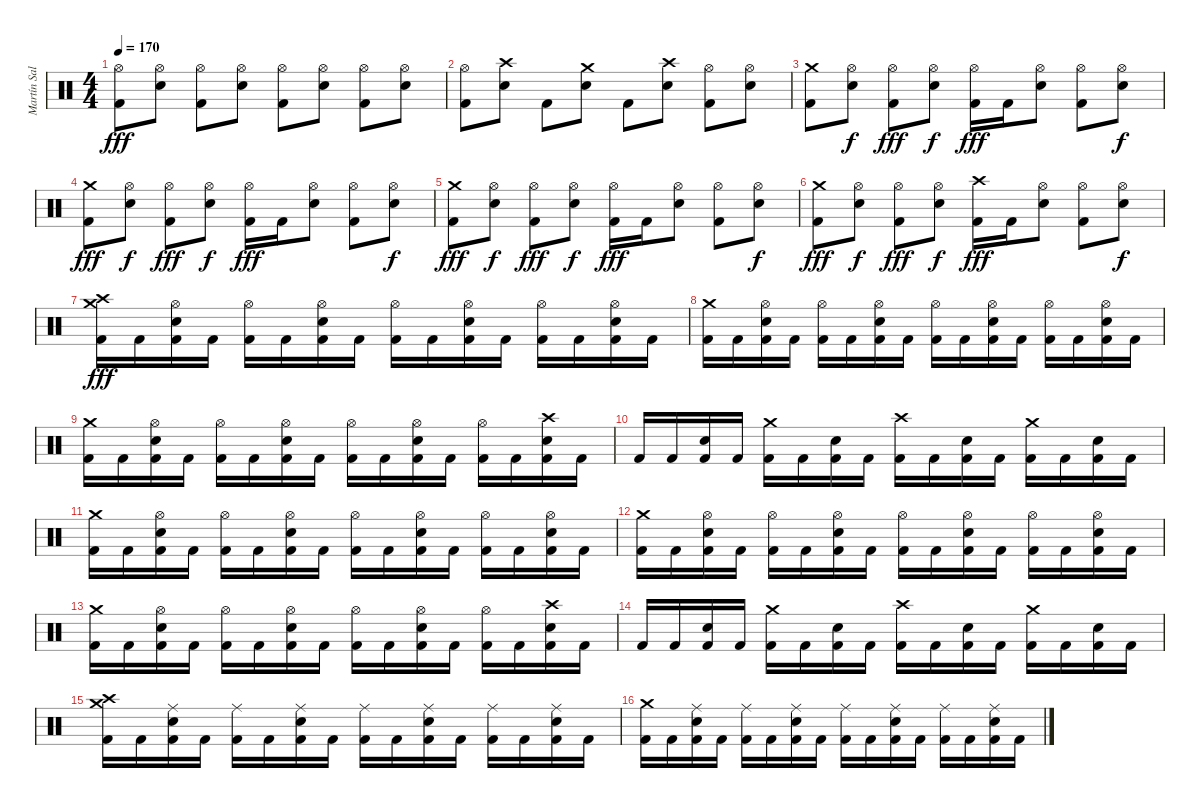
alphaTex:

\track ("Martín Salariato" "Martín Sal") {instrument percussion}
\staff {score}
\articulation defaults
\ts (4 4)
\tempo 170
\clef neutral
\ks c
("Hi-Hat (open)" "Kick (hit) 2").8{dy fff} ("Hi-Hat (open)" "Snare (hit) 2").8 ("Hi-Hat (open)" "Kick (hit) 2").8 ("Hi-Hat (open)" "Snare (hit) 2").8 ("Hi-Hat (open)" "Kick (hit) 2").8 ("Hi-Hat (open)" "Snare (hit) 2").8 ("Hi-Hat (open)" "Kick (hit) 2").8 ("Hi-Hat (open)" "Snare (hit) 2").8 |
("Hi-Hat (open)" "Kick (hit) 2").8 ("Crash high (hit)" "Snare (hit) 2").8 "Kick (hit) 2".8 ("Crash medium (hit)" "Snare (hit) 2").8 "Kick (hit) 2".8 ("Crash high (hit)" "Snare (hit) 2").8 ("Hi-Hat (open)" "Kick (hit) 2").8 ("Hi-Hat (open)" "Snare (hit) 2").8 |
("Crash medium (hit)" "Kick (hit) 2").8 ("Hi-Hat (open)" "Snare (hit) 2").8{dy f} ("Hi-Hat (open)" "Kick (hit) 2").8{dy fff} ("Hi-Hat (open)" "Snare (hit) 2").8{dy f} ("Hi-Hat (open)" "Kick (hit) 2").16{dy fff} "Kick (hit) 2".16 ("Hi-Hat (open)" "Snare (hit) 2").8 ("Hi-Hat (open)" "Kick (hit) 2").8 ("Hi-Hat (open)" "Snare (hit) 2").8{dy f} |
("Crash medium (hit)" "Kick (hit) 2").8{dy fff} ("Hi-Hat (open)" "Snare (hit) 2").8{dy f} ("Hi-Hat (open)" "Kick (hit) 2").8{dy fff} ("Hi-Hat (open)" "Snare (hit) 2").8{dy f} ("Hi-Hat (open)" "Kick (hit) 2").16{dy fff} "Kick (hit) 2".16 ("Hi-Hat (open)" "Snare (hit) 2").8 ("Hi-Hat (open)" "Kick (hit) 2").8 ("Hi-Hat (open)" "Snare (hit) 2").8{dy f} |
("Crash medium (hit)" "Kick (hit) 2").8{dy fff} ("Hi-Hat (open)" "Snare (hit) 2").8{dy f} ("Hi-Hat (open)" "Kick (hit) 2").8{dy fff} ("Hi-Hat (open)" "Snare (hit) 2").8{dy f} ("Hi-Hat (open)" "Kick (hit) 2").16{dy fff} "Kick (hit) 2".16 ("Hi-Hat (open)" "Snare (hit) 2").8 ("Hi-Hat (open)" "Kick (hit) 2").8 ("Hi-Hat (open)" "Snare (hit) 2").8{dy f} |
("Crash medium (hit)" "Kick (hit) 2").8{dy fff} ("Hi-Hat (open)" "Snare (hit) 2").8{dy f} ("Hi-Hat (open)" "Kick (hit) 2").8{dy fff} ("Hi-Hat (open)" "Snare (hit) 2").8{dy f} ("Crash high (hit)" "Kick (hit) 2").16{dy fff} "Kick (hit) 2".16 ("Hi-Hat (open)" "Snare (hit) 2").8 ("Hi-Hat (open)" "Kick (hit) 2").8 ("Hi-Hat (open)" "Snare (hit) 2").8{dy f} |
("Crash high (hit)" "Crash medium (hit)" "Kick (hit) 2").16{dy fff} "Kick (hit) 2".16 ("Hi-Hat (open)" "Snare (hit) 2" "Kick (hit) 2").16 "Kick (hit) 2".16 ("Hi-Hat (open)" "Kick (hit) 2").16 "Kick (hit) 2".16 ("Hi-Hat (open)" "Snare (hit) 2" "Kick (hit) 2").16 "Kick (hit) 2".16 ("Hi-Hat (open)" "Kick (hit) 2").16 "Kick (hit) 2".16 ("Hi-Hat (open)" "Snare (hit) 2" "Kick (hit) 2").16 "Kick (hit) 2".16 ("Hi-Hat (open)" "Kick (hit) 2").16 "Kick (hit) 2".16 ("Hi-Hat (open)" "Snare (hit) 2" "Kick (hit) 2").16 "Kick (hit) 2".16 |
("Crash medium (hit)" "Kick (hit) 2").16 "Kick (hit) 2".16 ("Hi-Hat (open)" "Snare (hit) 2" "Kick (hit) 2").16 "Kick (hit) 2".16 ("Hi-Hat (open)" "Kick (hit) 2").16 "Kick (hit) 2".16 ("Hi-Hat (open)" "Snare (hit) 2" "Kick (hit) 2").16 "Kick (hit) 2".16 ("Hi-Hat (open)" "Kick (hit) 2").16 "Kick (hit) 2".16 ("Hi-Hat (open)" "Snare (hit) 2" "Kick (hit) 2").16 "Kick (hit) 2".16 ("Hi-Hat (open)" "Kick (hit) 2").16 "Kick (hit) 2".16 ("Hi-Hat (open)" "Snare (hit) 2" "Kick (hit) 2").16 "Kick (hit) 2".16 |
("Crash medium (hit)" "Kick (hit) 2").16 "Kick (hit) 2".16 ("Hi-Hat (open)" "Snare (hit) 2" "Kick (hit) 2").16 "Kick (hit) 2".16 ("Hi-Hat (open)" "Kick (hit) 2").16 "Kick (hit) 2".16 ("Hi-Hat (open)" "Snare (hit) 2" "Kick (hit) 2").16 "Kick (hit) 2".16 ("Hi-Hat (open)" "Kick (hit) 2").16 "Kick (hit) 2".16 ("Hi-Hat (open)" "Snare (hit) 2" "Kick (hit) 2").16 "Kick (hit) 2".16 ("Hi-Hat (open)" "Kick (hit) 2").16 "Kick (hit) 2".16 ("Crash high (hit)" "Snare (hit) 2" "Kick (hit) 2").16 "Kick (hit) 2".16 |
"Kick (hit) 2".16 "Kick (hit) 2".16 ("Snare (hit) 2" "Kick (hit) 2").16 "Kick (hit) 2".16 ("Crash medium (hit)" "Kick (hit) 2").16 "Kick (hit) 2".16 ("Snare (hit) 2" "Kick (hit) 2").16 "Kick (hit) 2".16 ("Crash high (hit)" "Kick (hit) 2").16 "Kick (hit) 2".16 ("Snare (hit) 2" "Kick (hit) 2").16 "Kick (hit) 2".16 ("Crash medium (hit)" "Kick (hit) 2").16 "Kick (hit) 2".16 ("Snare (hit) 2" "Kick (hit) 2").16 "Kick (hit) 2".16 |
("Crash medium (hit)" "Kick (hit) 2").16 "Kick (hit) 2".16 ("Hi-Hat (open)" "Snare (hit) 2" "Kick (hit) 2").16 "Kick (hit) 2".16 ("Hi-Hat (open)" "Kick (hit) 2").16 "Kick (hit) 2".16 ("Hi-Hat (open)" "Snare (hit) 2" "Kick (hit) 2").16 "Kick (hit) 2".16 ("Hi-Hat (open)" "Kick (hit) 2").16 "Kick (hit) 2".16 ("Hi-Hat (open)" "Snare (hit) 2" "Kick (hit) 2").16 "Kick (hit) 2".16 ("Hi-Hat (open)" "Kick (hit) 2").16 "Kick (hit) 2".16 ("Hi-Hat (open)" "Snare (hit) 2" "Kick (hit) 2").16 "Kick (hit) 2".16 |
("Crash medium (hit)" "Kick (hit) 2").16 "Kick (hit) 2".16 ("Hi-Hat (open)" "Snare (hit) 2" "Kick (hit) 2").16 "Kick (hit) 2".16 ("Hi-Hat (open)" "Kick (hit) 2").16 "Kick (hit) 2".16 ("Hi-Hat (open)" "Snare (hit) 2" "Kick (hit) 2").16 "Kick (hit) 2".16 ("Hi-Hat (open)" "Kick (hit) 2").16 "Kick (hit) 2".16 ("Hi-Hat (open)" "Snare (hit) 2" "Kick (hit) 2").16 "Kick (hit) 2".16 ("Hi-Hat (open)" "Kick (hit) 2").16 "Kick (hit) 2".16 ("Hi-Hat (open)" "Snare (hit) 2" "Kick (hit) 2").16 "Kick (hit) 2".16 |
("Crash medium (hit)" "Kick (hit) 2").16 "Kick (hit) 2".16 ("Hi-Hat (open)" "Snare (hit) 2" "Kick (hit) 2").16 "Kick (hit) 2".16 ("Hi-Hat (open)" "Kick (hit) 2").16 "Kick (hit) 2".16 ("Hi-Hat (open)" "Snare (hit) 2" "Kick (hit) 2").16 "Kick (hit) 2".16 ("Hi-Hat (open)" "Kick (hit) 2").16 "Kick (hit) 2".16 ("Hi-Hat (open)" "Snare (hit) 2" "Kick (hit) 2").16 "Kick (hit) 2".16 ("Hi-Hat (open)" "Kick (hit) 2").16 "Kick (hit) 2".16 ("Crash high (hit)" "Snare (hit) 2" "Kick (hit) 2").16 "Kick (hit) 2".16 |
"Kick (hit) 2".16 "Kick (hit) 2".16 ("Snare (hit) 2" "Kick (hit) 2").16 "Kick (hit) 2".16 ("Crash medium (hit)" "Kick (hit) 2").16 "Kick (hit) 2".16 ("Snare (hit) 2" "Kick (hit) 2").16 "Kick (hit) 2".16 ("Crash high (hit)" "Kick (hit) 2").16 "Kick (hit) 2".16 ("Snare (hit) 2" "Kick (hit) 2").16 "Kick (hit) 2".16 ("Crash medium (hit)" "Kick (hit) 2").16 "Kick (hit) 2".16 ("Snare (hit) 2" "Kick (hit) 2").16 "Kick (hit) 2".16 |
("Crash high (hit)" "Crash medium (hit)" "Kick (hit) 2").16 "Kick (hit) 2".16 ("Ride (middle)" "Snare (hit) 2" "Kick (hit) 2").16 "Kick (hit) 2".16 ("Ride (middle)" "Kick (hit) 2").16 "Kick (hit) 2".16 ("Ride (middle)" "Snare (hit) 2" "Kick (hit) 2").16 "Kick (hit) 2".16 ("Ride (middle)" "Kick (hit) 2").16 "Kick (hit) 2".16 ("Ride (middle)" "Snare (hit) 2" "Kick (hit) 2").16 "Kick (hit) 2".16 ("Ride (middle)" "Kick (hit) 2").16 "Kick (hit) 2".16 ("Ride (middle)" "Snare (hit) 2" "Kick (hit) 2").16 "Kick (hit) 2".16 |
("Crash medium (hit)" "Kick (hit) 2").16 "Kick (hit) 2".16 ("Ride (middle)" "Snare (hit) 2" "Kick (hit) 2").16 "Kick (hit) 2".16 ("Ride (middle)" "Kick (hit) 2").16 "Kick (hit) 2".16 ("Ride (middle)" "Snare (hit) 2" "Kick (hit) 2").16 "Kick (hit) 2".16 ("Ride (middle)" "Kick (hit) 2").16 "Kick (hit) 2".16 ("Ride (middle)" "Snare (hit) 2" "Kick (hit) 2").16 "Kick (hit) 2".16 ("Ride (middle)" "Kick (hit) 2").16 "Kick (hit) 2".16 ("Ride (middle)" "Snare (hit) 2" "Kick (hit) 2").16 "Kick (hit) 2".16
